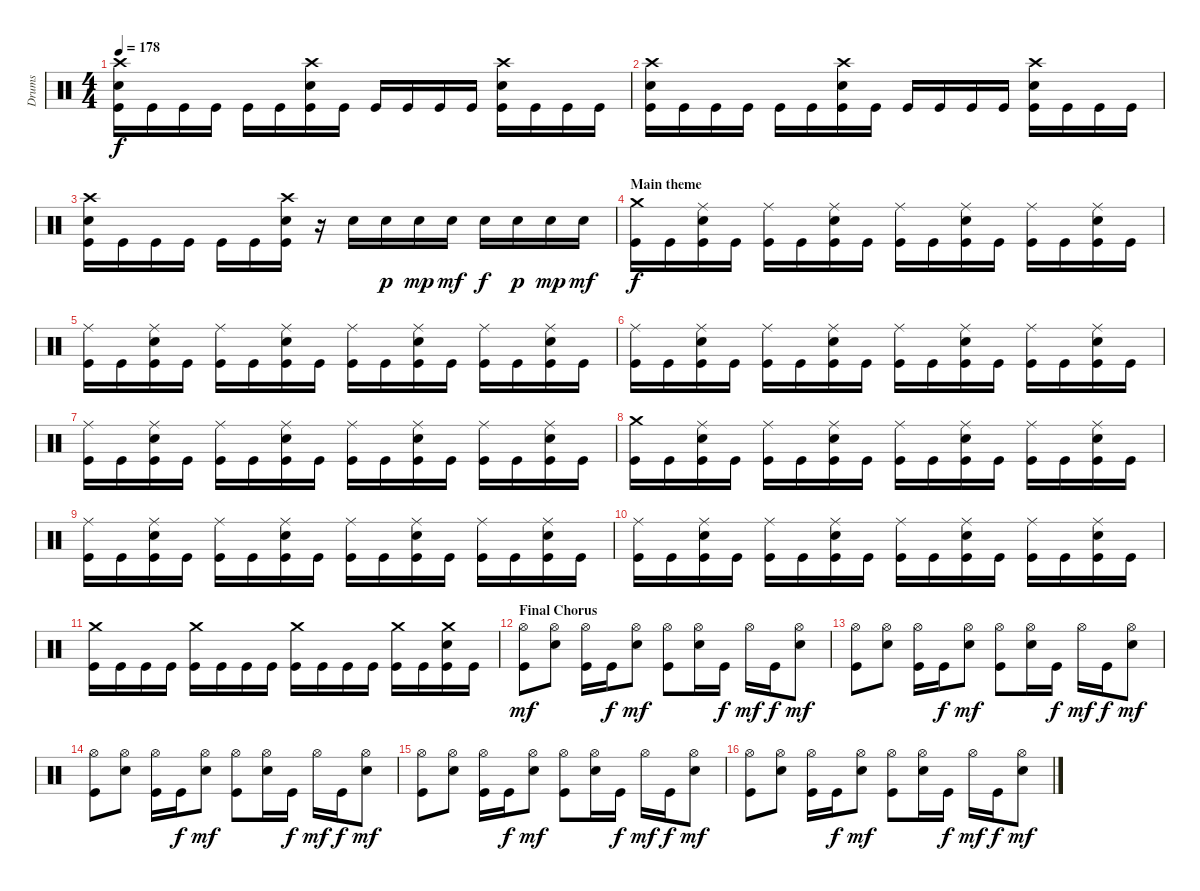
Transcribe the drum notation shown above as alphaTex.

\track ("Drums" "Drums") {instrument percussion}
\staff {score}
\articulation defaults
\ts (4 4)
\tempo 178
\clef neutral
\ks c
("Crash high (hit)" "Electric Snare (hit)" "Kick (hit)").16{dy f} "Kick (hit)".16 "Kick (hit)".16 "Kick (hit)".16 "Kick (hit)".16 "Kick (hit)".16 ("Crash high (hit)" "Electric Snare (hit)" "Kick (hit)").16 "Kick (hit)".16 "Kick (hit)".16 "Kick (hit)".16 "Kick (hit)".16 "Kick (hit)".16 ("Crash high (hit)" "Electric Snare (hit)" "Kick (hit)").16 "Kick (hit)".16 "Kick (hit)".16 "Kick (hit)".16 |
("Crash high (hit)" "Electric Snare (hit)" "Kick (hit)").16 "Kick (hit)".16 "Kick (hit)".16 "Kick (hit)".16 "Kick (hit)".16 "Kick (hit)".16 ("Crash high (hit)" "Electric Snare (hit)" "Kick (hit)").16 "Kick (hit)".16 "Kick (hit)".16 "Kick (hit)".16 "Kick (hit)".16 "Kick (hit)".16 ("Crash high (hit)" "Electric Snare (hit)" "Kick (hit)").16 "Kick (hit)".16 "Kick (hit)".16 "Kick (hit)".16 |
("Crash high (hit)" "Electric Snare (hit)" "Kick (hit)").16 "Kick (hit)".16 "Kick (hit)".16 "Kick (hit)".16 "Kick (hit)".16 "Kick (hit)".16 ("Crash high (hit)" "Electric Snare (hit)" "Kick (hit)").16 r.16 "Electric Snare (hit)".16 "Electric Snare (hit)".16{dy p} "Electric Snare (hit)".16{dy mp} "Electric Snare (hit)".16{dy mf} "Electric Snare (hit)".16{dy f} "Electric Snare (hit)".16{dy p} "Electric Snare (hit)".16{dy mp} "Electric Snare (hit)".16{dy mf} |
\section ("" "Main theme")
("Crash medium (hit)" "Kick (hit)").16{dy f} "Kick (hit)".16 ("Ride (middle)" "Electric Snare (hit)" "Kick (hit)").16 "Kick (hit)".16 ("Ride (middle)" "Kick (hit)").16 "Kick (hit)".16 ("Ride (middle)" "Electric Snare (hit)" "Kick (hit)").16 "Kick (hit)".16 ("Ride (middle)" "Kick (hit)").16 "Kick (hit)".16 ("Ride (middle)" "Electric Snare (hit)" "Kick (hit)").16 "Kick (hit)".16 ("Ride (middle)" "Kick (hit)").16 "Kick (hit)".16 ("Ride (middle)" "Electric Snare (hit)" "Kick (hit)").16 "Kick (hit)".16 |
("Ride (middle)" "Kick (hit)").16 "Kick (hit)".16 ("Ride (middle)" "Electric Snare (hit)" "Kick (hit)").16 "Kick (hit)".16 ("Ride (middle)" "Kick (hit)").16 "Kick (hit)".16 ("Ride (middle)" "Electric Snare (hit)" "Kick (hit)").16 "Kick (hit)".16 ("Ride (middle)" "Kick (hit)").16 "Kick (hit)".16 ("Ride (middle)" "Electric Snare (hit)" "Kick (hit)").16 "Kick (hit)".16 ("Ride (middle)" "Kick (hit)").16 "Kick (hit)".16 ("Ride (middle)" "Electric Snare (hit)" "Kick (hit)").16 "Kick (hit)".16 |
("Ride (middle)" "Kick (hit)").16 "Kick (hit)".16 ("Ride (middle)" "Electric Snare (hit)" "Kick (hit)").16 "Kick (hit)".16 ("Ride (middle)" "Kick (hit)").16 "Kick (hit)".16 ("Ride (middle)" "Electric Snare (hit)" "Kick (hit)").16 "Kick (hit)".16 ("Ride (middle)" "Kick (hit)").16 "Kick (hit)".16 ("Ride (middle)" "Electric Snare (hit)" "Kick (hit)").16 "Kick (hit)".16 ("Ride (middle)" "Kick (hit)").16 "Kick (hit)".16 ("Ride (middle)" "Electric Snare (hit)" "Kick (hit)").16 "Kick (hit)".16 |
("Ride (middle)" "Kick (hit)").16 "Kick (hit)".16 ("Ride (middle)" "Electric Snare (hit)" "Kick (hit)").16 "Kick (hit)".16 ("Ride (middle)" "Kick (hit)").16 "Kick (hit)".16 ("Ride (middle)" "Electric Snare (hit)" "Kick (hit)").16 "Kick (hit)".16 ("Ride (middle)" "Kick (hit)").16 "Kick (hit)".16 ("Ride (middle)" "Electric Snare (hit)" "Kick (hit)").16 "Kick (hit)".16 ("Ride (middle)" "Kick (hit)").16 "Kick (hit)".16 ("Ride (middle)" "Electric Snare (hit)" "Kick (hit)").16 "Kick (hit)".16 |
("Crash medium (hit)" "Kick (hit)").16 "Kick (hit)".16 ("Ride (middle)" "Electric Snare (hit)" "Kick (hit)").16 "Kick (hit)".16 ("Ride (middle)" "Kick (hit)").16 "Kick (hit)".16 ("Ride (middle)" "Electric Snare (hit)" "Kick (hit)").16 "Kick (hit)".16 ("Ride (middle)" "Kick (hit)").16 "Kick (hit)".16 ("Ride (middle)" "Electric Snare (hit)" "Kick (hit)").16 "Kick (hit)".16 ("Ride (middle)" "Kick (hit)").16 "Kick (hit)".16 ("Ride (middle)" "Electric Snare (hit)" "Kick (hit)").16 "Kick (hit)".16 |
("Ride (middle)" "Kick (hit)").16 "Kick (hit)".16 ("Ride (middle)" "Electric Snare (hit)" "Kick (hit)").16 "Kick (hit)".16 ("Ride (middle)" "Kick (hit)").16 "Kick (hit)".16 ("Ride (middle)" "Electric Snare (hit)" "Kick (hit)").16 "Kick (hit)".16 ("Ride (middle)" "Kick (hit)").16 "Kick (hit)".16 ("Ride (middle)" "Electric Snare (hit)" "Kick (hit)").16 "Kick (hit)".16 ("Ride (middle)" "Kick (hit)").16 "Kick (hit)".16 ("Ride (middle)" "Electric Snare (hit)" "Kick (hit)").16 "Kick (hit)".16 |
("Ride (middle)" "Kick (hit)").16 "Kick (hit)".16 ("Ride (middle)" "Electric Snare (hit)" "Kick (hit)").16 "Kick (hit)".16 ("Ride (middle)" "Kick (hit)").16 "Kick (hit)".16 ("Ride (middle)" "Electric Snare (hit)" "Kick (hit)").16 "Kick (hit)".16 ("Ride (middle)" "Kick (hit)").16 "Kick (hit)".16 ("Ride (middle)" "Electric Snare (hit)" "Kick (hit)").16 "Kick (hit)".16 ("Ride (middle)" "Kick (hit)").16 "Kick (hit)".16 ("Ride (middle)" "Electric Snare (hit)" "Kick (hit)").16 "Kick (hit)".16 |
("Crash medium (hit)" "Kick (hit)").16 "Kick (hit)".16 "Kick (hit)".16 "Kick (hit)".16 ("Crash medium (hit)" "Kick (hit)").16 "Kick (hit)".16 "Kick (hit)".16 "Kick (hit)".16 ("Crash medium (hit)" "Kick (hit)").16 "Kick (hit)".16 "Kick (hit)".16 "Kick (hit)".16 ("Crash medium (hit)" "Kick (hit)").16 "Kick (hit)".16 ("Crash medium (hit)" "Electric Snare (hit)" "Kick (hit)").16 "Kick (hit)".16 |
\section ("" "Final Chorus")
("Hi-Hat (open)" "Kick (hit)").8{dy mf} ("Hi-Hat (open)" "Electric Snare (hit)").8 ("Hi-Hat (open)" "Kick (hit)").16 "Kick (hit)".16{dy f} ("Hi-Hat (open)" "Electric Snare (hit)").8{dy mf} ("Hi-Hat (open)" "Kick (hit)").8 ("Hi-Hat (open)" "Electric Snare (hit)").16 "Kick (hit)".16{dy f} "Hi-Hat (open)".16{dy mf} "Kick (hit)".16{dy f} ("Hi-Hat (open)" "Electric Snare (hit)").8{dy mf} |
("Hi-Hat (open)" "Kick (hit)").8 ("Hi-Hat (open)" "Electric Snare (hit)").8 ("Hi-Hat (open)" "Kick (hit)").16 "Kick (hit)".16{dy f} ("Hi-Hat (open)" "Electric Snare (hit)").8{dy mf} ("Hi-Hat (open)" "Kick (hit)").8 ("Hi-Hat (open)" "Electric Snare (hit)").16 "Kick (hit)".16{dy f} "Hi-Hat (open)".16{dy mf} "Kick (hit)".16{dy f} ("Hi-Hat (open)" "Electric Snare (hit)").8{dy mf} |
("Hi-Hat (open)" "Kick (hit)").8 ("Hi-Hat (open)" "Electric Snare (hit)").8 ("Hi-Hat (open)" "Kick (hit)").16 "Kick (hit)".16{dy f} ("Hi-Hat (open)" "Electric Snare (hit)").8{dy mf} ("Hi-Hat (open)" "Kick (hit)").8 ("Hi-Hat (open)" "Electric Snare (hit)").16 "Kick (hit)".16{dy f} "Hi-Hat (open)".16{dy mf} "Kick (hit)".16{dy f} ("Hi-Hat (open)" "Electric Snare (hit)").8{dy mf} |
("Hi-Hat (open)" "Kick (hit)").8 ("Hi-Hat (open)" "Electric Snare (hit)").8 ("Hi-Hat (open)" "Kick (hit)").16 "Kick (hit)".16{dy f} ("Hi-Hat (open)" "Electric Snare (hit)").8{dy mf} ("Hi-Hat (open)" "Kick (hit)").8 ("Hi-Hat (open)" "Electric Snare (hit)").16 "Kick (hit)".16{dy f} "Hi-Hat (open)".16{dy mf} "Kick (hit)".16{dy f} ("Hi-Hat (open)" "Electric Snare (hit)").8{dy mf} |
("Hi-Hat (open)" "Kick (hit)").8 ("Hi-Hat (open)" "Electric Snare (hit)").8 ("Hi-Hat (open)" "Kick (hit)").16 "Kick (hit)".16{dy f} ("Hi-Hat (open)" "Electric Snare (hit)").8{dy mf} ("Hi-Hat (open)" "Kick (hit)").8 ("Hi-Hat (open)" "Electric Snare (hit)").16 "Kick (hit)".16{dy f} "Hi-Hat (open)".16{dy mf} "Kick (hit)".16{dy f} ("Hi-Hat (open)" "Electric Snare (hit)").8{dy mf}
